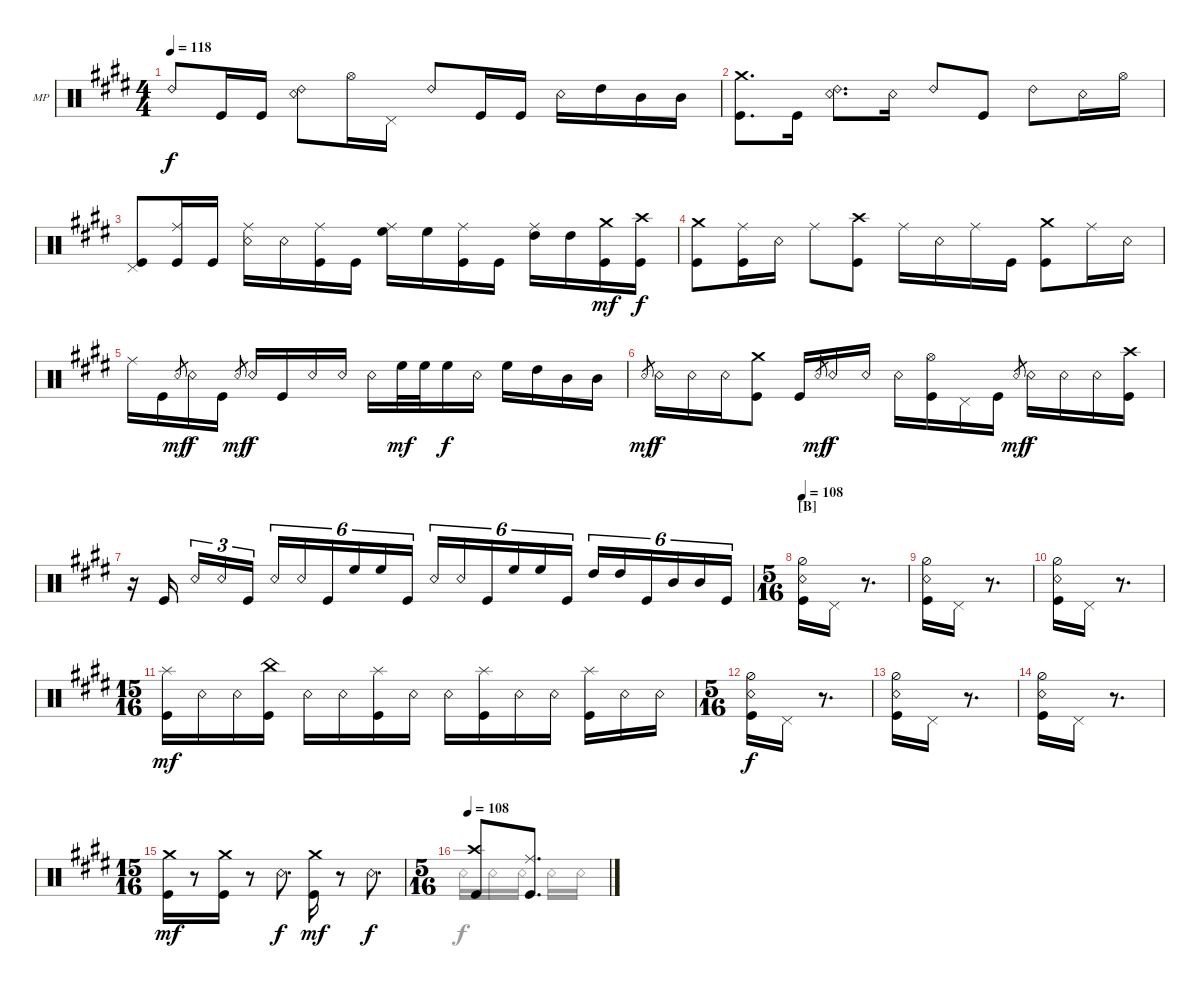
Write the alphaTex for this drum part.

\defaultSystemsLayout 4
\bracketExtendMode groupsimilarinstruments
\firstSystemTrackNameOrientation horizontal
\otherSystemsTrackNameOrientation horizontal
\track ("Mike Portnoy" "MP") {instrument percussion}
\staff {score}
\articulation defaults
\voice
\ts (4 4)
\tempo 118
\clef neutral
\ks e "Ride (bell) 2".8{dy f} "Kick (hit)".16 "Kick (hit)".16
("Ride (bell) 2" "Snare (rim shot)").8 "Hi-Hat (open)".16 "Pedal Hi-Hat (hit)".16 "Ride (bell) 2".8 "Kick (hit)".16 "Kick (hit)".16 "Snare (rim shot)".16 "High Tom (hit)".16 "Mid Tom (hit)".16 "Mid Tom (hit)".16 |
("Crash medium (hit)" "Kick (hit)").8{d} "Kick (hit)".16 ("Ride (bell) 2" "Snare (rim shot)").8{d} "Snare (rim shot)".16 "Ride (bell) 2".8 "Kick (hit)".8 "Ride (bell) 2".8 "Snare (rim shot)".16 "Hi-Hat (open)".16 |
("Pedal Hi-Hat (hit)" "Kick (hit)").8 ("Ride (middle)" "Kick (hit)").16 "Kick (hit)".16 ("Ride (middle)" "Snare (rim shot)").16 "Snare (rim shot)".16 ("Ride (middle)" "Kick (hit)").16 "Kick (hit)".16 ("Ride (middle)" "High Floor Tom (hit)").16 "High Floor Tom (hit)".16 ("Ride (middle)" "Kick (hit)").16 "Kick (hit)".16 ("Ride (middle)" "High Tom (hit)").16 "High Tom (hit)".16 ("Crash medium (hit)" "Kick (hit)").16{dy mf} ("Crash high (hit)" "Kick (hit)").16{dy f} |
("Crash medium (hit)" "Kick (hit)").8 ("Ride (middle)" "Kick (hit)").16 "Snare (rim shot)".16 "Ride (middle)".8 ("Crash high (hit)" "Kick (hit)").8 "Ride (middle)".16 "Snare (rim shot)".16 "Ride (middle)".16 "Kick (hit)".16 ("Crash medium (hit)" "Kick (hit)").8 "Ride (middle)".16 "Snare (rim shot)".16 |
"Ride (middle)".16 "Kick (hit)".16 "Snare (rim shot)".8{gr dy mf} "Snare (rim shot)".16{dy f} "Kick (hit)".16 "Snare (rim shot)".8{gr dy mf} "Snare (rim shot)".16{dy f} "Kick (hit)".16 "Snare (rim shot)".16 "Snare (rim shot)".16 "Snare (rim shot)".16 "High Floor Tom (hit)".32{dy mf} "High Floor Tom (hit)".32 "High Floor Tom (hit)".16{dy f} "Snare (rim shot)".16 "High Floor Tom (hit)".16 "High Tom (hit)".16 "Mid Tom (hit)".16 "Mid Tom (hit)".16 |
"Snare (rim shot)".8{gr dy mf} "Snare (rim shot)".16{dy f} "Snare (rim shot)".16 "Snare (rim shot)".16 ("Crash medium (hit)" "Kick (hit)").8 "Kick (hit)".16 "Snare (rim shot)".8{gr dy mf} "Snare (rim shot)".16{dy f} "Snare (rim shot)".16 "Snare (rim shot)".16 ("Hi-Hat (open)" "Kick (hit)").16 "Pedal Hi-Hat (hit)".16 "Kick (hit)".16 "Snare (rim shot)".8{gr dy mf} "Snare (rim shot)".16{dy f} "Snare (rim shot)".16 "Snare (rim shot)".16 ("Crash high (hit)" "Kick (hit)").16 |
r.16 "Kick (hit)".16 "Snare (rim shot)".16{tu (3 2)} "Snare (rim shot)".16{tu (3 2)} "Kick (hit)".16{tu (3 2)} "Snare (rim shot)".16{tu (6 4)} "Snare (rim shot)".16{tu (6 4)} "Kick (hit)".16{tu (6 4)} "High Floor Tom (hit)".16{tu (6 4)} "High Floor Tom (hit)".16{tu (6 4)} "Kick (hit)".16{tu (6 4)} "Snare (rim shot)".16{tu (6 4)} "Snare (rim shot)".16{tu (6 4)} "Kick (hit)".16{tu (6 4)} "High Floor Tom (hit)".16{tu (6 4)} "High Floor Tom (hit)".16{tu (6 4)} "Kick (hit)".16{tu (6 4)} "High Tom (hit)".16{tu (6 4)} "High Tom (hit)".16{tu (6 4)} "Kick (hit)".16{tu (6 4)} "Mid Tom (hit)".16{tu (6 4)} "Mid Tom (hit)".16{tu (6 4)} "Kick (hit)".16{tu (6 4)} |
\ts (5 16)
\section ("B" "")
\tempo 108
("Hi-Hat (half)" "Snare (rim shot)" "Kick (hit)").16 "Pedal Hi-Hat (hit)".16 r.8{d} |
("Hi-Hat (half)" "Snare (rim shot)" "Kick (hit)").16 "Pedal Hi-Hat (hit)".16 r.8{d} |
("Hi-Hat (half)" "Snare (rim shot)" "Kick (hit)").16 "Pedal Hi-Hat (hit)".16 r.8{d} |
\ts (15 16)
("Splash (hit)" "Kick (hit)").16{dy mf} "Snare (rim shot)".16 "Snare (rim shot)".16 ("China (hit)" "Kick (hit)").16 "Snare (rim shot)".16 "Snare (rim shot)".16 ("Splash (hit)" "Kick (hit)").16 "Snare (rim shot)".16 "Snare (rim shot)".16 ("Splash (hit)" "Kick (hit)").16 "Snare (rim shot)".16 "Snare (rim shot)".16 ("Splash (hit)" "Kick (hit)").16 "Snare (rim shot)".16 "Snare (rim shot)".16 |
\ts (5 16)
("Hi-Hat (half)" "Snare (rim shot)" "Kick (hit)").16{dy f} "Pedal Hi-Hat (hit)".16 r.8{d} |
("Hi-Hat (half)" "Snare (rim shot)" "Kick (hit)").16 "Pedal Hi-Hat (hit)".16 r.8{d} |
("Hi-Hat (half)" "Snare (rim shot)" "Kick (hit)").16 "Pedal Hi-Hat (hit)".16 r.8{d} |
\ts (15 16)
("Crash medium (hit)" "Kick (hit)").16{dy mf} r.8 ("Crash medium (hit)" "Kick (hit)").16 r.8 "Snare (rim shot)".8{d dy f} ("Crash medium (hit)" "Kick (hit)").16{dy mf} r.8 "Snare (rim shot)".8{d dy f} |
\ts (5 16)
\tempo 108
("Crash high (hit)" "Kick (hit)").8 ("Ride (middle)" "Kick (hit)").8{d}
\voice
\clef neutral
\ottava regular
\simile none
\ks e
|
|
|
|
|
|
|
|
|
|
|
|
|
|
|
"Snare (rim shot)".16 "Snare (rim shot)".16 "Snare (rim shot)".16 "Snare (rim shot)".16 "Snare (rim shot)".16
